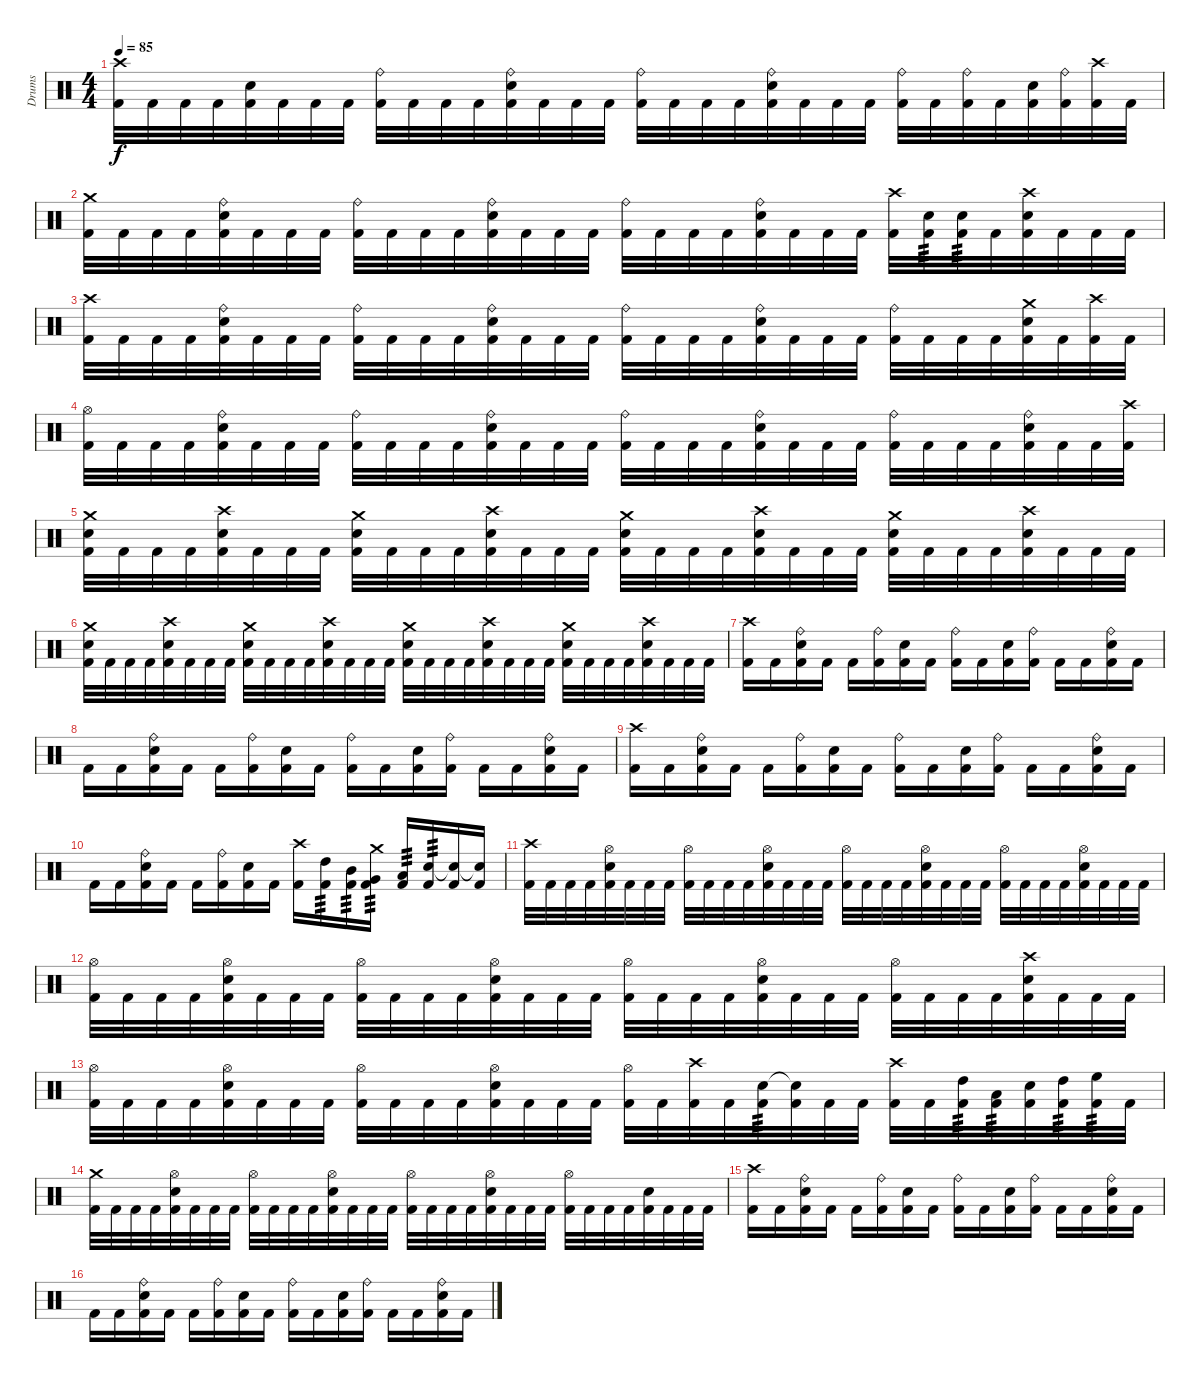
\track ("Drums" "Drums") {instrument percussion}
\staff {score}
\articulation defaults
\ts (4 4)
\tempo 85
\clef neutral
\ks c
("Crash high (hit)" "Kick (hit) 2").32{dy f} "Kick (hit) 2".32 "Kick (hit) 2".32 "Kick (hit) 2".32 ("Snare (hit) 2" "Kick (hit) 2").32 "Kick (hit) 2".32 "Kick (hit) 2".32 "Kick (hit) 2".32 ("Ride (bell)" "Kick (hit) 2").32 "Kick (hit) 2".32 "Kick (hit) 2".32 "Kick (hit) 2".32 ("Ride (bell)" "Snare (hit) 2" "Kick (hit) 2").32 "Kick (hit) 2".32 "Kick (hit) 2".32 "Kick (hit) 2".32 ("Ride (bell)" "Kick (hit) 2").32 "Kick (hit) 2".32 "Kick (hit) 2".32 "Kick (hit) 2".32 ("Ride (bell)" "Snare (hit) 2" "Kick (hit) 2").32 "Kick (hit) 2".32 "Kick (hit) 2".32 "Kick (hit) 2".32 ("Ride (bell)" "Kick (hit) 2").32 "Kick (hit) 2".32 ("Ride (bell)" "Kick (hit) 2").32 "Kick (hit) 2".32 ("Snare (hit) 2" "Kick (hit) 2").32 ("Ride (bell)" "Kick (hit) 2").32 ("Crash high (hit)" "Kick (hit) 2").32 "Kick (hit) 2".32 |
("Crash medium (hit)" "Kick (hit) 2").32 "Kick (hit) 2".32 "Kick (hit) 2".32 "Kick (hit) 2".32 ("Ride (bell)" "Snare (hit) 2" "Kick (hit) 2").32 "Kick (hit) 2".32 "Kick (hit) 2".32 "Kick (hit) 2".32 ("Ride (bell)" "Kick (hit) 2").32 "Kick (hit) 2".32 "Kick (hit) 2".32 "Kick (hit) 2".32 ("Ride (bell)" "Snare (hit) 2" "Kick (hit) 2").32 "Kick (hit) 2".32 "Kick (hit) 2".32 "Kick (hit) 2".32 ("Ride (bell)" "Kick (hit) 2").32 "Kick (hit) 2".32 "Kick (hit) 2".32 "Kick (hit) 2".32 ("Ride (bell)" "Snare (hit) 2" "Kick (hit) 2").32 "Kick (hit) 2".32 "Kick (hit) 2".32 "Kick (hit) 2".32 ("Crash high (hit)" "Kick (hit) 2").32 ("Snare (hit) 2" "Kick (hit) 2").32{tp 3} ("Snare (hit) 2" "Kick (hit) 2").32{tp 3} "Kick (hit) 2".32 ("Crash high (hit)" "Snare (hit) 2" "Kick (hit) 2").32 "Kick (hit) 2".32 "Kick (hit) 2".32 "Kick (hit) 2".32 |
("Crash high (hit)" "Kick (hit) 2").32 "Kick (hit) 2".32 "Kick (hit) 2".32 "Kick (hit) 2".32 ("Ride (bell)" "Snare (hit) 2" "Kick (hit) 2").32 "Kick (hit) 2".32 "Kick (hit) 2".32 "Kick (hit) 2".32 ("Ride (bell)" "Kick (hit) 2").32 "Kick (hit) 2".32 "Kick (hit) 2".32 "Kick (hit) 2".32 ("Ride (bell)" "Snare (hit) 2" "Kick (hit) 2").32 "Kick (hit) 2".32 "Kick (hit) 2".32 "Kick (hit) 2".32 ("Ride (bell)" "Kick (hit) 2").32 "Kick (hit) 2".32 "Kick (hit) 2".32 "Kick (hit) 2".32 ("Ride (bell)" "Snare (hit) 2" "Kick (hit) 2").32 "Kick (hit) 2".32 "Kick (hit) 2".32 "Kick (hit) 2".32 ("Ride (bell)" "Kick (hit) 2").32 "Kick (hit) 2".32 "Kick (hit) 2".32 "Kick (hit) 2".32 ("Crash medium (hit)" "Snare (hit) 2" "Kick (hit) 2").32 "Kick (hit) 2".32 ("Crash high (hit)" "Kick (hit) 2").32 "Kick (hit) 2".32 |
("Hi-Hat (open)" "Kick (hit) 2").32 "Kick (hit) 2".32 "Kick (hit) 2".32 "Kick (hit) 2".32 ("Ride (bell)" "Snare (hit) 2" "Kick (hit) 2").32 "Kick (hit) 2".32 "Kick (hit) 2".32 "Kick (hit) 2".32 ("Ride (bell)" "Kick (hit) 2").32 "Kick (hit) 2".32 "Kick (hit) 2".32 "Kick (hit) 2".32 ("Ride (bell)" "Snare (hit) 2" "Kick (hit) 2").32 "Kick (hit) 2".32 "Kick (hit) 2".32 "Kick (hit) 2".32 ("Ride (bell)" "Kick (hit) 2").32 "Kick (hit) 2".32 "Kick (hit) 2".32 "Kick (hit) 2".32 ("Ride (bell)" "Snare (hit) 2" "Kick (hit) 2").32 "Kick (hit) 2".32 "Kick (hit) 2".32 "Kick (hit) 2".32 ("Ride (bell)" "Kick (hit) 2").32 "Kick (hit) 2".32 "Kick (hit) 2".32 "Kick (hit) 2".32 ("Ride (bell)" "Snare (hit) 2" "Kick (hit) 2").32 "Kick (hit) 2".32 "Kick (hit) 2".32 ("Crash high (hit)" "Kick (hit) 2").32 |
("Crash medium (hit)" "Snare (hit) 2" "Kick (hit) 2").32 "Kick (hit) 2".32 "Kick (hit) 2".32 "Kick (hit) 2".32 ("Crash high (hit)" "Snare (hit) 2" "Kick (hit) 2").32 "Kick (hit) 2".32 "Kick (hit) 2".32 "Kick (hit) 2".32 ("Crash medium (hit)" "Snare (hit) 2" "Kick (hit) 2").32 "Kick (hit) 2".32 "Kick (hit) 2".32 "Kick (hit) 2".32 ("Crash high (hit)" "Snare (hit) 2" "Kick (hit) 2").32 "Kick (hit) 2".32 "Kick (hit) 2".32 "Kick (hit) 2".32 ("Crash medium (hit)" "Snare (hit) 2" "Kick (hit) 2").32 "Kick (hit) 2".32 "Kick (hit) 2".32 "Kick (hit) 2".32 ("Crash high (hit)" "Snare (hit) 2" "Kick (hit) 2").32 "Kick (hit) 2".32 "Kick (hit) 2".32 "Kick (hit) 2".32 ("Crash medium (hit)" "Snare (hit) 2" "Kick (hit) 2").32 "Kick (hit) 2".32 "Kick (hit) 2".32 "Kick (hit) 2".32 ("Crash high (hit)" "Snare (hit) 2" "Kick (hit) 2").32 "Kick (hit) 2".32 "Kick (hit) 2".32 "Kick (hit) 2".32 |
("Crash medium (hit)" "Snare (hit) 2" "Kick (hit) 2").32 "Kick (hit) 2".32 "Kick (hit) 2".32 "Kick (hit) 2".32 ("Crash high (hit)" "Snare (hit) 2" "Kick (hit) 2").32 "Kick (hit) 2".32 "Kick (hit) 2".32 "Kick (hit) 2".32 ("Crash medium (hit)" "Snare (hit) 2" "Kick (hit) 2").32 "Kick (hit) 2".32 "Kick (hit) 2".32 "Kick (hit) 2".32 ("Crash high (hit)" "Snare (hit) 2" "Kick (hit) 2").32 "Kick (hit) 2".32 "Kick (hit) 2".32 "Kick (hit) 2".32 ("Crash medium (hit)" "Snare (hit) 2" "Kick (hit) 2").32 "Kick (hit) 2".32 "Kick (hit) 2".32 "Kick (hit) 2".32 ("Crash high (hit)" "Snare (hit) 2" "Kick (hit) 2").32 "Kick (hit) 2".32 "Kick (hit) 2".32 "Kick (hit) 2".32 ("Crash medium (hit)" "Snare (hit) 2" "Kick (hit) 2").32 "Kick (hit) 2".32 "Kick (hit) 2".32 "Kick (hit) 2".32 ("Crash high (hit)" "Snare (hit) 2" "Kick (hit) 2").32 "Kick (hit) 2".32 "Kick (hit) 2".32 "Kick (hit) 2".32 |
\section ("" "..")
("Crash high (hit)" "Kick (hit) 2").16 "Kick (hit) 2".16 ("Ride (bell)" "Snare (hit) 2" "Kick (hit) 2").16 "Kick (hit) 2".16 "Kick (hit) 2".16 ("Ride (bell)" "Kick (hit) 2").16 ("Snare (hit) 2" "Kick (hit) 2").16 "Kick (hit) 2".16 ("Ride (bell)" "Kick (hit) 2").16 "Kick (hit) 2".16 ("Snare (hit) 2" "Kick (hit) 2").16 ("Ride (bell)" "Kick (hit) 2").16 "Kick (hit) 2".16 "Kick (hit) 2".16 ("Ride (bell)" "Snare (hit) 2" "Kick (hit) 2").16 "Kick (hit) 2".16 |
"Kick (hit) 2".16 "Kick (hit) 2".16 ("Ride (bell)" "Snare (hit) 2" "Kick (hit) 2").16 "Kick (hit) 2".16 "Kick (hit) 2".16 ("Ride (bell)" "Kick (hit) 2").16 ("Snare (hit) 2" "Kick (hit) 2").16 "Kick (hit) 2".16 ("Ride (bell)" "Kick (hit) 2").16 "Kick (hit) 2".16 ("Snare (hit) 2" "Kick (hit) 2").16 ("Ride (bell)" "Kick (hit) 2").16 "Kick (hit) 2".16 "Kick (hit) 2".16 ("Ride (bell)" "Snare (hit) 2" "Kick (hit) 2").16 "Kick (hit) 2".16 |
("Crash high (hit)" "Kick (hit) 2").16 "Kick (hit) 2".16 ("Ride (bell)" "Snare (hit) 2" "Kick (hit) 2").16 "Kick (hit) 2".16 "Kick (hit) 2".16 ("Ride (bell)" "Kick (hit) 2").16 ("Snare (hit) 2" "Kick (hit) 2").16 "Kick (hit) 2".16 ("Ride (bell)" "Kick (hit) 2").16 "Kick (hit) 2".16 ("Snare (hit) 2" "Kick (hit) 2").16 ("Ride (bell)" "Kick (hit) 2").16 "Kick (hit) 2".16 "Kick (hit) 2".16 ("Ride (bell)" "Snare (hit) 2" "Kick (hit) 2").16 "Kick (hit) 2".16 |
"Kick (hit) 2".16 "Kick (hit) 2".16 ("Ride (bell)" "Snare (hit) 2" "Kick (hit) 2").16 "Kick (hit) 2".16 "Kick (hit) 2".16 ("Ride (bell)" "Kick (hit) 2").16 ("Snare (hit) 2" "Kick (hit) 2").16 "Kick (hit) 2".16 ("Crash high (hit)" "Kick (hit) 2").16 ("High Tom (hit)" "Kick (hit) 2").16{tp 3} ("Mid Tom (hit)" "Kick (hit) 2").16{tp 3} ("Crash medium (hit)" "Very Low Tom (hit)" "Kick (hit) 2").16{tp 3} ("Low Floor Tom (hit)" "Kick (hit) 2").16{tp 3} ("Snare (hit) 2" "Kick (hit) 2").16{tp 3} ("Snare (hit) 2"{t} "Kick (hit) 2").16 ("Snare (hit)"{t} "Kick (hit) 2").16 |
("Crash high (hit)" "Kick (hit) 2").32 "Kick (hit) 2".32 "Kick (hit) 2".32 "Kick (hit) 2".32 ("Hi-Hat (open)" "Snare (hit) 2" "Kick (hit) 2").32 "Kick (hit) 2".32 "Kick (hit) 2".32 "Kick (hit) 2".32 ("Hi-Hat (open)" "Kick (hit) 2").32 "Kick (hit) 2".32 "Kick (hit) 2".32 "Kick (hit) 2".32 ("Hi-Hat (open)" "Snare (hit) 2" "Kick (hit) 2").32 "Kick (hit) 2".32 "Kick (hit) 2".32 "Kick (hit) 2".32 ("Hi-Hat (open)" "Kick (hit) 2").32 "Kick (hit) 2".32 "Kick (hit) 2".32 "Kick (hit) 2".32 ("Hi-Hat (open)" "Snare (hit) 2" "Kick (hit) 2").32 "Kick (hit) 2".32 "Kick (hit) 2".32 "Kick (hit) 2".32 ("Hi-Hat (open)" "Kick (hit) 2").32 "Kick (hit) 2".32 "Kick (hit) 2".32 "Kick (hit) 2".32 ("Hi-Hat (open)" "Snare (hit) 2" "Kick (hit) 2").32 "Kick (hit) 2".32 "Kick (hit) 2".32 "Kick (hit) 2".32 |
("Hi-Hat (open)" "Kick (hit) 2").32 "Kick (hit) 2".32 "Kick (hit) 2".32 "Kick (hit) 2".32 ("Hi-Hat (open)" "Snare (hit) 2" "Kick (hit) 2").32 "Kick (hit) 2".32 "Kick (hit) 2".32 "Kick (hit) 2".32 ("Hi-Hat (open)" "Kick (hit) 2").32 "Kick (hit) 2".32 "Kick (hit) 2".32 "Kick (hit) 2".32 ("Hi-Hat (open)" "Snare (hit) 2" "Kick (hit) 2").32 "Kick (hit) 2".32 "Kick (hit) 2".32 "Kick (hit) 2".32 ("Hi-Hat (open)" "Kick (hit) 2").32 "Kick (hit) 2".32 "Kick (hit) 2".32 "Kick (hit) 2".32 ("Hi-Hat (open)" "Snare (hit) 2" "Kick (hit) 2").32 "Kick (hit) 2".32 "Kick (hit) 2".32 "Kick (hit) 2".32 ("Hi-Hat (open)" "Kick (hit) 2").32 "Kick (hit) 2".32 "Kick (hit) 2".32 "Kick (hit) 2".32 ("Crash high (hit)" "Snare (hit) 2" "Kick (hit) 2").32 "Kick (hit) 2".32 "Kick (hit) 2".32 "Kick (hit) 2".32 |
("Hi-Hat (open)" "Kick (hit) 2").32 "Kick (hit) 2".32 "Kick (hit) 2".32 "Kick (hit) 2".32 ("Hi-Hat (open)" "Snare (hit) 2" "Kick (hit) 2").32 "Kick (hit) 2".32 "Kick (hit) 2".32 "Kick (hit) 2".32 ("Hi-Hat (open)" "Kick (hit) 2").32 "Kick (hit) 2".32 "Kick (hit) 2".32 "Kick (hit) 2".32 ("Hi-Hat (open)" "Snare (hit) 2" "Kick (hit) 2").32 "Kick (hit) 2".32 "Kick (hit) 2".32 "Kick (hit) 2".32 ("Hi-Hat (open)" "Kick (hit) 2").32 "Kick (hit) 2".32 ("Crash high (hit)" "Kick (hit) 2").32 "Kick (hit) 2".32 ("Snare (hit) 2" "Kick (hit) 2").32{tp 3} ("Snare (hit)"{t} "Kick (hit) 2").32 "Kick (hit) 2".32 "Kick (hit) 2".32 ("Crash high (hit)" "Kick (hit) 2").32 "Kick (hit) 2".32 ("High Tom (hit)" "Kick (hit) 2").32{tp 3} ("Low Tom (hit)" "Kick (hit) 2").32{tp 3} ("Snare (hit) 2" "Kick (hit) 2").32 ("High Tom (hit)" "Kick (hit) 2").32{tp 3} ("High Floor Tom (hit)" "Kick (hit) 2").32{tp 3} "Kick (hit) 2".32 |
("Crash medium (hit)" "Kick (hit) 2").32 "Kick (hit) 2".32 "Kick (hit) 2".32 "Kick (hit) 2".32 ("Hi-Hat (open)" "Snare (hit) 2" "Kick (hit) 2").32 "Kick (hit) 2".32 "Kick (hit) 2".32 "Kick (hit) 2".32 ("Hi-Hat (open)" "Kick (hit) 2").32 "Kick (hit) 2".32 "Kick (hit) 2".32 "Kick (hit) 2".32 ("Hi-Hat (open)" "Snare (hit) 2" "Kick (hit) 2").32 "Kick (hit) 2".32 "Kick (hit) 2".32 "Kick (hit) 2".32 ("Hi-Hat (open)" "Kick (hit) 2").32 "Kick (hit) 2".32 "Kick (hit) 2".32 "Kick (hit) 2".32 ("Hi-Hat (open)" "Snare (hit) 2" "Kick (hit) 2").32 "Kick (hit) 2".32 "Kick (hit) 2".32 "Kick (hit) 2".32 ("Hi-Hat (open)" "Kick (hit) 2").32 "Kick (hit) 2".32 "Kick (hit) 2".32 "Kick (hit) 2".32 ("Snare (hit) 2" "Kick (hit) 2").32 "Kick (hit) 2".32 "Kick (hit) 2".32 "Kick (hit) 2".32 |
("Crash high (hit)" "Kick (hit) 2").16 "Kick (hit) 2".16 ("Ride (bell)" "Snare (hit) 2" "Kick (hit) 2").16 "Kick (hit) 2".16 "Kick (hit) 2".16 ("Ride (bell)" "Kick (hit) 2").16 ("Snare (hit) 2" "Kick (hit) 2").16 "Kick (hit) 2".16 ("Ride (bell)" "Kick (hit) 2").16 "Kick (hit) 2".16 ("Snare (hit) 2" "Kick (hit) 2").16 ("Ride (bell)" "Kick (hit) 2").16 "Kick (hit) 2".16 "Kick (hit) 2".16 ("Ride (bell)" "Snare (hit) 2" "Kick (hit) 2").16 "Kick (hit) 2".16 |
"Kick (hit) 2".16 "Kick (hit) 2".16 ("Ride (bell)" "Snare (hit) 2" "Kick (hit) 2").16 "Kick (hit) 2".16 "Kick (hit) 2".16 ("Ride (bell)" "Kick (hit) 2").16 ("Snare (hit) 2" "Kick (hit) 2").16 "Kick (hit) 2".16 ("Ride (bell)" "Kick (hit) 2").16 "Kick (hit) 2".16 ("Snare (hit) 2" "Kick (hit) 2").16 ("Ride (bell)" "Kick (hit) 2").16 "Kick (hit) 2".16 "Kick (hit) 2".16 ("Ride (bell)" "Snare (hit) 2" "Kick (hit) 2").16 "Kick (hit) 2".16
